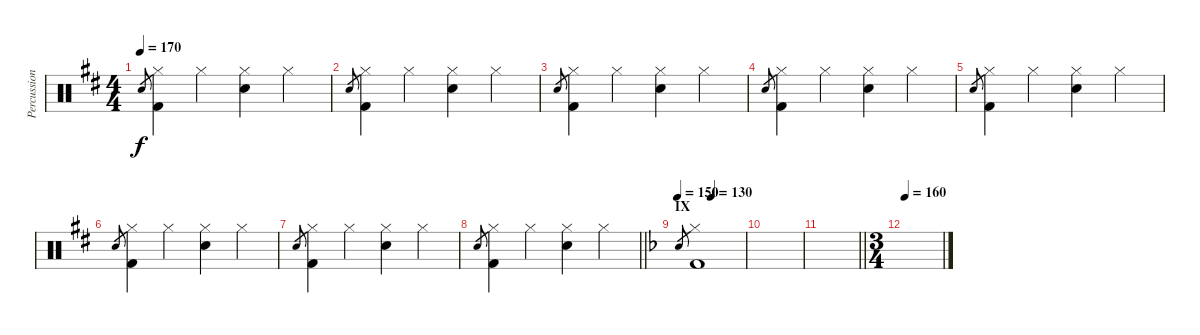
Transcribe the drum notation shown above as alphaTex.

\track ("Percussion [Nick Mason]" "Percussion") {instrument percussion}
\staff {score}
\articulation defaults
\ts (4 4)
\tempo 170
\clef neutral
\ks d "Snare (hit) 2".8{gr dy f}
("Hi-Hat (closed)" "Kick (hit) 2").4 "Hi-Hat (closed)".4 ("Hi-Hat (closed)" "Snare (hit) 2").4 "Hi-Hat (closed)".4 |
"Snare (hit) 2".8{gr} ("Hi-Hat (closed)" "Kick (hit) 2").4 "Hi-Hat (closed)".4 ("Hi-Hat (closed)" "Snare (hit) 2").4 "Hi-Hat (closed)".4 |
"Snare (hit) 2".8{gr} ("Hi-Hat (closed)" "Kick (hit) 2").4 "Hi-Hat (closed)".4 ("Hi-Hat (closed)" "Snare (hit) 2").4 "Hi-Hat (closed)".4 |
"Snare (hit) 2".8{gr} ("Hi-Hat (closed)" "Kick (hit) 2").4 "Hi-Hat (closed)".4 ("Hi-Hat (closed)" "Snare (hit) 2").4 "Hi-Hat (closed)".4 |
"Snare (hit) 2".8{gr} ("Hi-Hat (closed)" "Kick (hit) 2").4 "Hi-Hat (closed)".4 ("Hi-Hat (closed)" "Snare (hit) 2").4 "Hi-Hat (closed)".4 |
"Snare (hit) 2".8{gr} ("Hi-Hat (closed)" "Kick (hit) 2").4 "Hi-Hat (closed)".4 ("Hi-Hat (closed)" "Snare (hit) 2").4 "Hi-Hat (closed)".4 |
"Snare (hit) 2".8{gr} ("Hi-Hat (closed)" "Kick (hit) 2").4 "Hi-Hat (closed)".4 ("Hi-Hat (closed)" "Snare (hit) 2").4 "Hi-Hat (closed)".4 |
\barLineRight lightlight "Snare (hit) 2".8{gr}
("Hi-Hat (closed)" "Kick (hit) 2").4 "Hi-Hat (closed)".4 ("Hi-Hat (closed)" "Snare (hit) 2").4 "Hi-Hat (closed)".4 |
\section ("" "IX")
\tempo 150
\tempo (130 0.5)
\ks dminor "Snare (hit) 2".8{gr}
("Hi-Hat (closed)" "Kick (hit) 2").1 |
|
\barLineRight lightlight
|
\ts (3 4)
\tempo 160
